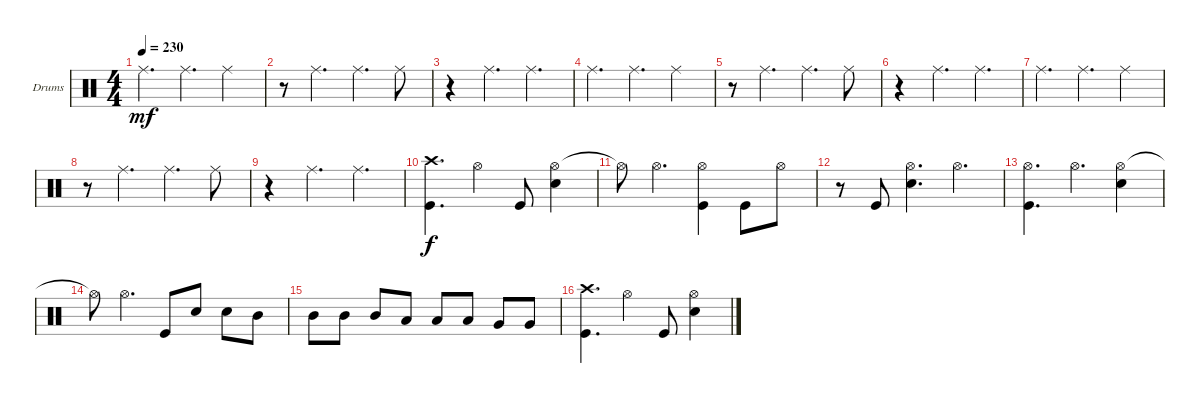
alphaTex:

\bracketExtendMode groupsimilarinstruments
\firstSystemTrackNameOrientation horizontal
\otherSystemsTrackNameOrientation horizontal
\track ("Drumkit" "Drums") {instrument percussion}
\staff {score}
\articulation defaults
\ts (4 4)
\tempo 230
\clef neutral
\ks c "Ride (middle)".4{d dy mf} "Ride (middle)".4{d} "Ride (middle)".4
|
r.8 "Ride (middle)".4{d} "Ride (middle)".4{d} "Ride (middle)".8 |
r.4 "Ride (middle)".4{d} "Ride (middle)".4{d} |
"Ride (middle)".4{d} "Ride (middle)".4{d} "Ride (middle)".4 |
r.8 "Ride (middle)".4{d} "Ride (middle)".4{d} "Ride (middle)".8 |
r.4 "Ride (middle)".4{d} "Ride (middle)".4{d} |
"Ride (middle)".4{d} "Ride (middle)".4{d} "Ride (middle)".4 |
r.8 "Ride (middle)".4{d} "Ride (middle)".4{d} "Ride (middle)".8 |
r.4 "Ride (middle)".4{d} "Ride (middle)".4{d} |
("Crash high (hit)" "Kick (hit)").4{d dy f} "Hi-Hat (open)".4 "Kick (hit)".8 ("Hi-Hat (open)" "Snare (hit) 2").4 |
"Hi-Hat (open)"{t}.8 "Hi-Hat (open)".4{d} ("Hi-Hat (open)" "Kick (hit)").4 "Kick (hit)".8 "Hi-Hat (open)".8 |
r.8 "Kick (hit)".8 ("Hi-Hat (open)" "Snare (hit) 2").4{d} "Hi-Hat (open)".4{d} |
("Hi-Hat (open)" "Kick (hit)").4{d} "Hi-Hat (open)".4{d} ("Hi-Hat (open)" "Snare (hit) 2").4 |
"Hi-Hat (open)"{t}.8 "Hi-Hat (open)".4{d} "Kick (hit)".8 "Snare (hit) 2".8 "Snare (hit) 2".8 "Mid Tom (hit)".8 |
"Mid Tom (hit)".8 "Mid Tom (hit)".8 "Mid Tom (hit)".8 "Low Tom (hit)".8 "Low Tom (hit)".8 "Low Tom (hit)".8 "Very Low Tom (hit)".8 "Very Low Tom (hit)".8 |
("Crash high (hit)" "Kick (hit)").4{d} "Hi-Hat (open)".4 "Kick (hit)".8 ("Hi-Hat (open)" "Snare (hit) 2").4
